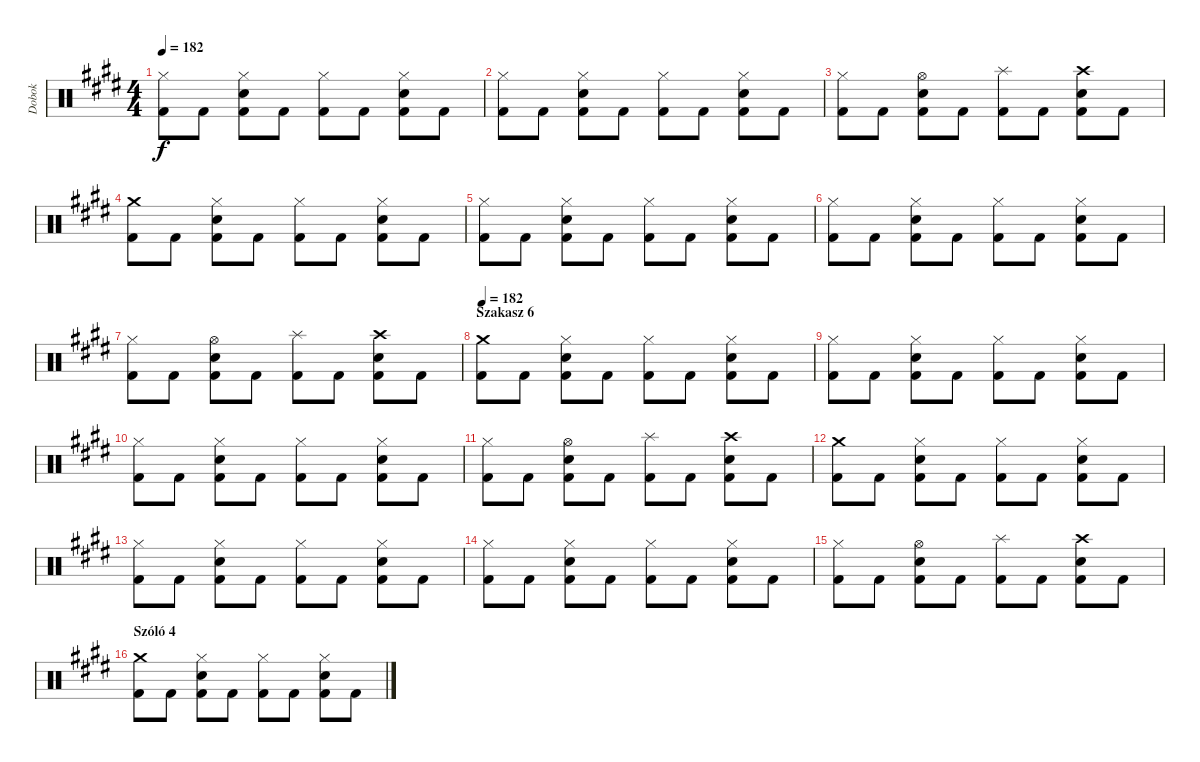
\track ("Dobok" "Dobok") {instrument percussion}
\staff {score}
\articulation defaults
\ts (4 4)
\tempo 182
\clef neutral
\ks c#minor
("Hi-Hat (closed)" "Kick (hit) 2").8{dy f} "Kick (hit) 2".8 ("Hi-Hat (closed)" "Snare (hit) 2" "Kick (hit) 2").8 "Kick (hit) 2".8 ("Hi-Hat (closed)" "Kick (hit) 2").8 "Kick (hit) 2".8 ("Hi-Hat (closed)" "Snare (hit) 2" "Kick (hit) 2").8 "Kick (hit) 2".8 |
("Hi-Hat (closed)" "Kick (hit) 2").8 "Kick (hit) 2".8 ("Hi-Hat (closed)" "Snare (hit) 2" "Kick (hit) 2").8 "Kick (hit) 2".8 ("Hi-Hat (closed)" "Kick (hit) 2").8 "Kick (hit) 2".8 ("Hi-Hat (closed)" "Snare (hit) 2" "Kick (hit) 2").8 "Kick (hit) 2".8 |
("Hi-Hat (closed)" "Kick (hit) 2").8 "Kick (hit) 2".8 ("Hi-Hat (open)" "Snare (hit) 2" "Kick (hit) 2").8 "Kick (hit) 2".8 ("Splash (hit)" "Kick (hit) 2").8 "Kick (hit) 2".8 ("Crash high (hit)" "Snare (hit) 2" "Kick (hit) 2").8 "Kick (hit) 2".8 |
("Crash medium (hit)" "Kick (hit) 2").8 "Kick (hit) 2".8 ("Hi-Hat (closed)" "Snare (hit) 2" "Kick (hit) 2").8 "Kick (hit) 2".8 ("Hi-Hat (closed)" "Kick (hit) 2").8 "Kick (hit) 2".8 ("Hi-Hat (closed)" "Snare (hit) 2" "Kick (hit) 2").8 "Kick (hit) 2".8 |
("Hi-Hat (closed)" "Kick (hit) 2").8 "Kick (hit) 2".8 ("Hi-Hat (closed)" "Snare (hit) 2" "Kick (hit) 2").8 "Kick (hit) 2".8 ("Hi-Hat (closed)" "Kick (hit) 2").8 "Kick (hit) 2".8 ("Hi-Hat (closed)" "Snare (hit) 2" "Kick (hit) 2").8 "Kick (hit) 2".8 |
("Hi-Hat (closed)" "Kick (hit) 2").8 "Kick (hit) 2".8 ("Hi-Hat (closed)" "Snare (hit) 2" "Kick (hit) 2").8 "Kick (hit) 2".8 ("Hi-Hat (closed)" "Kick (hit) 2").8 "Kick (hit) 2".8 ("Hi-Hat (closed)" "Snare (hit) 2" "Kick (hit) 2").8 "Kick (hit) 2".8 |
("Hi-Hat (closed)" "Kick (hit) 2").8 "Kick (hit) 2".8 ("Hi-Hat (open)" "Snare (hit) 2" "Kick (hit) 2").8 "Kick (hit) 2".8 ("Splash (hit)" "Kick (hit) 2").8 "Kick (hit) 2".8 ("Crash high (hit)" "Snare (hit) 2" "Kick (hit) 2").8 "Kick (hit) 2".8 |
\section ("" "Szakasz 6")
\tempo 182
("Crash medium (hit)" "Kick (hit) 2").8 "Kick (hit) 2".8 ("Hi-Hat (closed)" "Snare (hit) 2" "Kick (hit) 2").8 "Kick (hit) 2".8 ("Hi-Hat (closed)" "Kick (hit) 2").8 "Kick (hit) 2".8 ("Hi-Hat (closed)" "Snare (hit) 2" "Kick (hit) 2").8 "Kick (hit) 2".8 |
("Hi-Hat (closed)" "Kick (hit) 2").8 "Kick (hit) 2".8 ("Hi-Hat (closed)" "Snare (hit) 2" "Kick (hit) 2").8 "Kick (hit) 2".8 ("Hi-Hat (closed)" "Kick (hit) 2").8 "Kick (hit) 2".8 ("Hi-Hat (closed)" "Snare (hit) 2" "Kick (hit) 2").8 "Kick (hit) 2".8 |
("Hi-Hat (closed)" "Kick (hit) 2").8 "Kick (hit) 2".8 ("Hi-Hat (closed)" "Snare (hit) 2" "Kick (hit) 2").8 "Kick (hit) 2".8 ("Hi-Hat (closed)" "Kick (hit) 2").8 "Kick (hit) 2".8 ("Hi-Hat (closed)" "Snare (hit) 2" "Kick (hit) 2").8 "Kick (hit) 2".8 |
("Hi-Hat (closed)" "Kick (hit) 2").8 "Kick (hit) 2".8 ("Hi-Hat (open)" "Snare (hit) 2" "Kick (hit) 2").8 "Kick (hit) 2".8 ("Splash (hit)" "Kick (hit) 2").8 "Kick (hit) 2".8 ("Crash high (hit)" "Snare (hit) 2" "Kick (hit) 2").8 "Kick (hit) 2".8 |
("Crash medium (hit)" "Kick (hit) 2").8 "Kick (hit) 2".8 ("Hi-Hat (closed)" "Snare (hit) 2" "Kick (hit) 2").8 "Kick (hit) 2".8 ("Hi-Hat (closed)" "Kick (hit) 2").8 "Kick (hit) 2".8 ("Hi-Hat (closed)" "Snare (hit) 2" "Kick (hit) 2").8 "Kick (hit) 2".8 |
("Hi-Hat (closed)" "Kick (hit) 2").8 "Kick (hit) 2".8 ("Hi-Hat (closed)" "Snare (hit) 2" "Kick (hit) 2").8 "Kick (hit) 2".8 ("Hi-Hat (closed)" "Kick (hit) 2").8 "Kick (hit) 2".8 ("Hi-Hat (closed)" "Snare (hit) 2" "Kick (hit) 2").8 "Kick (hit) 2".8 |
("Hi-Hat (closed)" "Kick (hit) 2").8 "Kick (hit) 2".8 ("Hi-Hat (closed)" "Snare (hit) 2" "Kick (hit) 2").8 "Kick (hit) 2".8 ("Hi-Hat (closed)" "Kick (hit) 2").8 "Kick (hit) 2".8 ("Hi-Hat (closed)" "Snare (hit) 2" "Kick (hit) 2").8 "Kick (hit) 2".8 |
("Hi-Hat (closed)" "Kick (hit) 2").8 "Kick (hit) 2".8 ("Hi-Hat (open)" "Snare (hit) 2" "Kick (hit) 2").8 "Kick (hit) 2".8 ("Splash (hit)" "Kick (hit) 2").8 "Kick (hit) 2".8 ("Crash high (hit)" "Snare (hit) 2" "Kick (hit) 2").8 "Kick (hit) 2".8 |
\section ("" "Szóló 4")
("Crash medium (hit)" "Kick (hit) 2").8 "Kick (hit) 2".8 ("Hi-Hat (closed)" "Snare (hit) 2" "Kick (hit) 2").8 "Kick (hit) 2".8 ("Hi-Hat (closed)" "Kick (hit) 2").8 "Kick (hit) 2".8 ("Hi-Hat (closed)" "Snare (hit) 2" "Kick (hit) 2").8 "Kick (hit) 2".8
